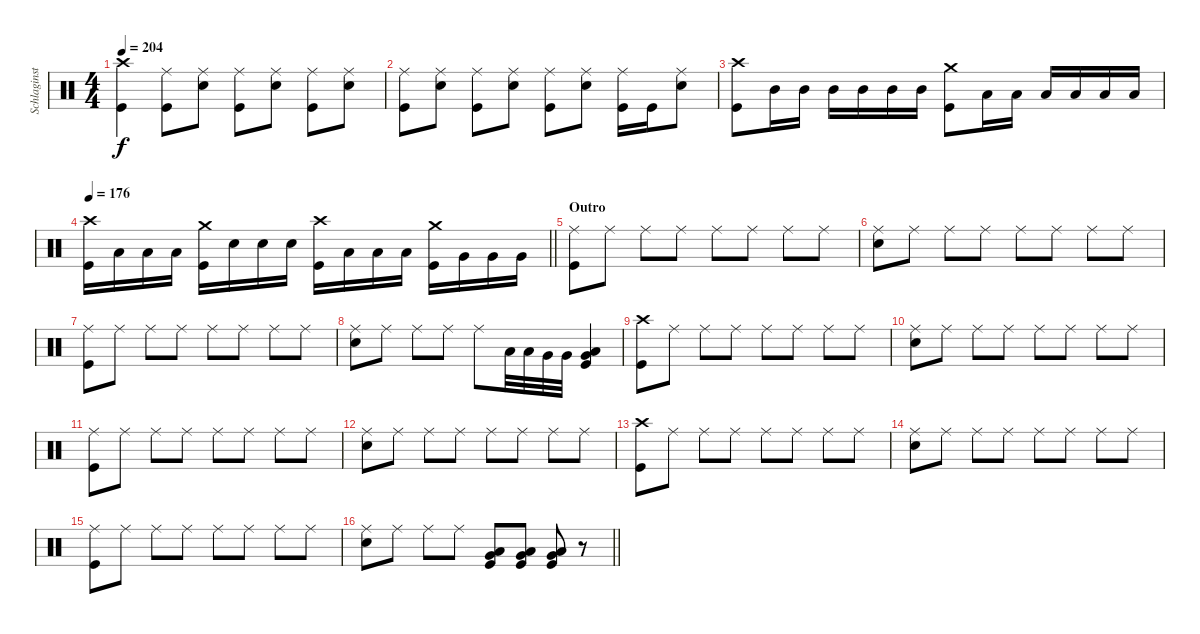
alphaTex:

\track ("Schlaginstrumente - Auswahl" "Schlaginst") {instrument percussion}
\staff {score}
\articulation defaults
\ts (4 4)
\tempo 204
\clef neutral
\ks c
("Kick (hit)" "Crash high (hit)").4{dy f} ("Kick (hit)" "Ride (middle)").8 ("Snare (hit) 2" "Ride (middle)").8 ("Kick (hit)" "Ride (middle)").8 ("Snare (hit) 2" "Ride (middle)").8 ("Kick (hit)" "Ride (middle)").8 ("Snare (hit) 2" "Ride (middle)").8 |
("Kick (hit)" "Ride (middle)").8 ("Snare (hit) 2" "Ride (middle)").8 ("Kick (hit)" "Ride (middle)").8 ("Snare (hit) 2" "Ride (middle)").8 ("Kick (hit)" "Ride (middle)").8 ("Snare (hit) 2" "Ride (middle)").8 ("Kick (hit)" "Ride (middle)").16 "Kick (hit)".16 ("Snare (hit) 2" "Ride (middle)").8 |
("Kick (hit)" "Crash high (hit)").8 "Mid Tom (hit)".16 "Mid Tom (hit)".16 "Mid Tom (hit)".16 "Mid Tom (hit)".16 "Mid Tom (hit)".16 "Mid Tom (hit)".16 ("Kick (hit)" "Crash medium (hit)").8 "Low Tom (hit)".16 "Low Tom (hit)".16 "Low Tom (hit)".16 "Low Tom (hit)".16 "Low Tom (hit)".16 "Low Tom (hit)".16 |
\tempo 176
\barLineRight lightlight
("Kick (hit)" "Crash high (hit)").16 "Low Tom (hit)".16 "Low Tom (hit)".16 "Low Tom (hit)".16 ("Kick (hit)" "Crash medium (hit)").16 "Snare (hit) 2".16 "Snare (hit) 2".16 "Snare (hit) 2".16 ("Kick (hit)" "Crash high (hit)").16 "Low Tom (hit)".16 "Low Tom (hit)".16 "Low Tom (hit)".16 ("Kick (hit)" "Crash medium (hit)").16 "Very Low Tom (hit)".16 "Very Low Tom (hit)".16 "Very Low Tom (hit)".16 |
\section ("" "Outro")
("Kick (hit)" "Ride (middle)").8 "Ride (middle)".8 "Ride (middle)".8 "Ride (middle)".8 "Ride (middle)".8 "Ride (middle)".8 "Ride (middle)".8 "Ride (middle)".8 |
("Snare (hit) 2" "Ride (middle)").8 "Ride (middle)".8 "Ride (middle)".8 "Ride (middle)".8 "Ride (middle)".8 "Ride (middle)".8 "Ride (middle)".8 "Ride (middle)".8 |
("Kick (hit)" "Ride (middle)").8 "Ride (middle)".8 "Ride (middle)".8 "Ride (middle)".8 "Ride (middle)".8 "Ride (middle)".8 "Ride (middle)".8 "Ride (middle)".8 |
("Snare (hit) 2" "Ride (middle)").8 "Ride (middle)".8 "Ride (middle)".8 "Ride (middle)".8 "Ride (middle)".8 "Low Tom (hit)".32 "Low Tom (hit)".32 "Very Low Tom (hit)".32 "Very Low Tom (hit)".32 ("Kick (hit)" "Very Low Tom (hit)" "Low Floor Tom (hit)").4 |
("Kick (hit)" "Crash high (hit)").8 "Ride (middle)".8 "Ride (middle)".8 "Ride (middle)".8 "Ride (middle)".8 "Ride (middle)".8 "Ride (middle)".8 "Ride (middle)".8 |
("Snare (hit) 2" "Ride (middle)").8 "Ride (middle)".8 "Ride (middle)".8 "Ride (middle)".8 "Ride (middle)".8 "Ride (middle)".8 "Ride (middle)".8 "Ride (middle)".8 |
("Kick (hit)" "Ride (middle)").8 "Ride (middle)".8 "Ride (middle)".8 "Ride (middle)".8 "Ride (middle)".8 "Ride (middle)".8 "Ride (middle)".8 "Ride (middle)".8 |
("Snare (hit) 2" "Ride (middle)").8 "Ride (middle)".8 "Ride (middle)".8 "Ride (middle)".8 "Ride (middle)".8 "Ride (middle)".8 "Ride (middle)".8 "Ride (middle)".8 |
("Kick (hit)" "Crash high (hit)").8 "Ride (middle)".8 "Ride (middle)".8 "Ride (middle)".8 "Ride (middle)".8 "Ride (middle)".8 "Ride (middle)".8 "Ride (middle)".8 |
("Snare (hit) 2" "Ride (middle)").8 "Ride (middle)".8 "Ride (middle)".8 "Ride (middle)".8 "Ride (middle)".8 "Ride (middle)".8 "Ride (middle)".8 "Ride (middle)".8 |
("Kick (hit)" "Ride (middle)").8 "Ride (middle)".8 "Ride (middle)".8 "Ride (middle)".8 "Ride (middle)".8 "Ride (middle)".8 "Ride (middle)".8 "Ride (middle)".8 |
\barLineRight lightlight
("Snare (hit) 2" "Ride (middle)").8 "Ride (middle)".8 "Ride (middle)".8 "Ride (middle)".8 ("Kick (hit)" "Low Floor Tom (hit)" "Very Low Tom (hit)").8 ("Kick (hit)" "Low Floor Tom (hit)" "Very Low Tom (hit)").8 ("Kick (hit)" "Low Floor Tom (hit)" "Very Low Tom (hit)").8 r.8
